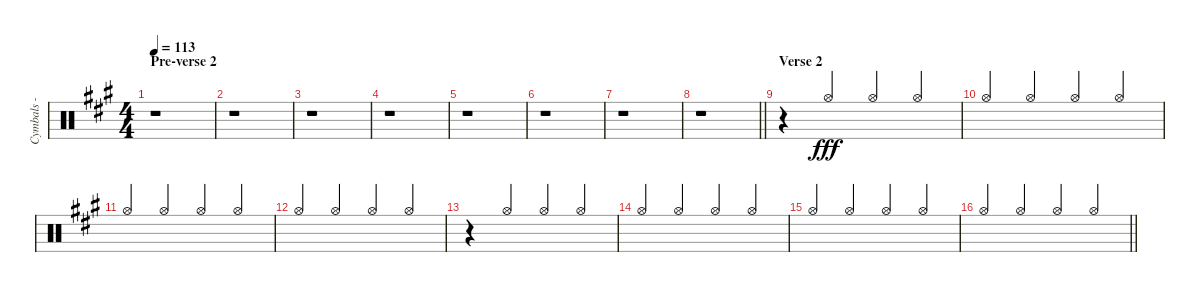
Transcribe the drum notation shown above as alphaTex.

\track ("Cymbals - hi-hat" "Cymbals - ") {instrument percussion}
\staff {score}
\articulation defaults
\ts (4 4)
\section ("" "Pre-verse 2")
\tempo 113
\clef neutral
\ks f#minor
r.1{dy fff} |
r.1 |
r.1 |
r.1 |
r.1 |
r.1 |
r.1 |
\barLineRight lightlight
r.1 |
\section ("" "Verse 2")
r.4 "Hi-Hat (open)".4{beam Up} "Hi-Hat (open)".4{beam Up} "Hi-Hat (open)".4{beam Up} |
"Hi-Hat (open)".4{beam Up} "Hi-Hat (open)".4{beam Up} "Hi-Hat (open)".4{beam Up} "Hi-Hat (open)".4{beam Up} |
"Hi-Hat (open)".4{beam Up} "Hi-Hat (open)".4{beam Up} "Hi-Hat (open)".4{beam Up} "Hi-Hat (open)".4{beam Up} |
"Hi-Hat (open)".4{beam Up} "Hi-Hat (open)".4{beam Up} "Hi-Hat (open)".4{beam Up} "Hi-Hat (open)".4{beam Up} |
r.4 "Hi-Hat (open)".4{beam Up} "Hi-Hat (open)".4{beam Up} "Hi-Hat (open)".4{beam Up} |
"Hi-Hat (open)".4{beam Up} "Hi-Hat (open)".4{beam Up} "Hi-Hat (open)".4{beam Up} "Hi-Hat (open)".4{beam Up} |
"Hi-Hat (open)".4{beam Up} "Hi-Hat (open)".4{beam Up} "Hi-Hat (open)".4{beam Up} "Hi-Hat (open)".4{beam Up} |
\barLineRight lightlight "Hi-Hat (open)".4{beam Up} "Hi-Hat (open)".4{beam Up} "Hi-Hat (open)".4{beam Up} "Hi-Hat (open)".4{beam Up}
